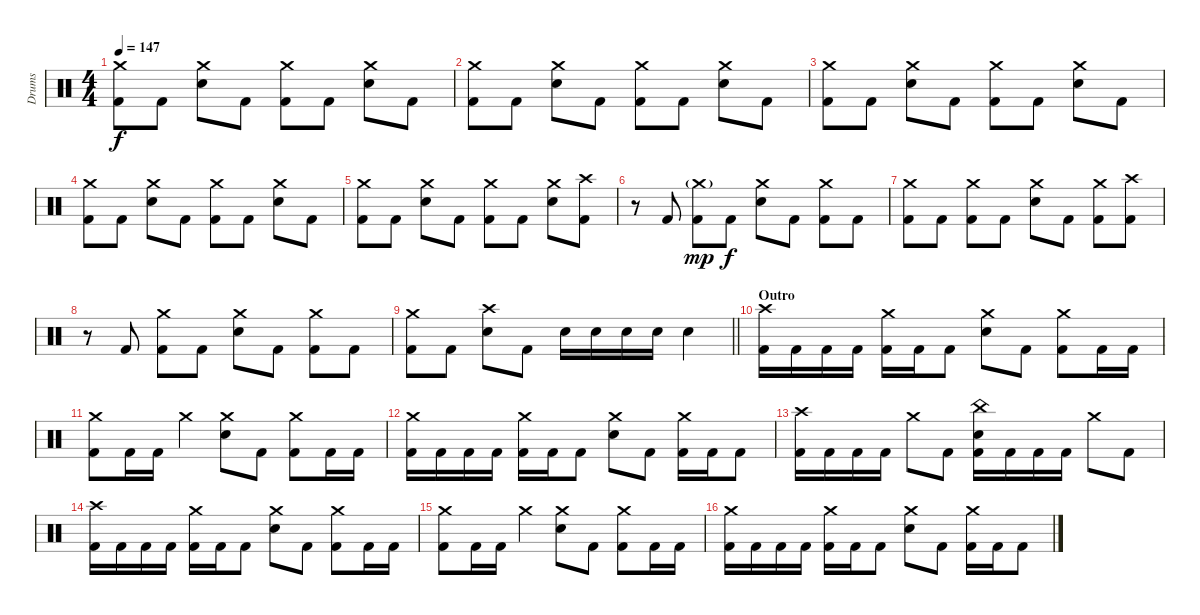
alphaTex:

\track ("Drums" "Drums") {instrument percussion}
\staff {score}
\articulation defaults
\ts (4 4)
\tempo 147
\clef neutral
\ks c
("Crash medium (hit)" "Kick (hit) 2").8{dy f} "Kick (hit) 2".8 ("Crash medium (hit)" "Snare (hit) 2").8 "Kick (hit) 2".8 ("Crash medium (hit)" "Kick (hit) 2").8 "Kick (hit) 2".8 ("Crash medium (hit)" "Snare (hit) 2").8 "Kick (hit) 2".8 |
("Crash medium (hit)" "Kick (hit) 2").8 "Kick (hit) 2".8 ("Crash medium (hit)" "Snare (hit) 2").8 "Kick (hit) 2".8 ("Crash medium (hit)" "Kick (hit) 2").8 "Kick (hit) 2".8 ("Crash medium (hit)" "Snare (hit) 2").8 "Kick (hit) 2".8 |
("Crash medium (hit)" "Kick (hit) 2").8 "Kick (hit) 2".8 ("Crash medium (hit)" "Snare (hit) 2").8 "Kick (hit) 2".8 ("Crash medium (hit)" "Kick (hit) 2").8 "Kick (hit) 2".8 ("Crash medium (hit)" "Snare (hit) 2").8 "Kick (hit) 2".8 |
("Crash medium (hit)" "Kick (hit) 2").8 "Kick (hit) 2".8 ("Crash medium (hit)" "Snare (hit) 2").8 "Kick (hit) 2".8 ("Crash medium (hit)" "Kick (hit) 2").8 "Kick (hit) 2".8 ("Crash medium (hit)" "Snare (hit) 2").8 "Kick (hit) 2".8 |
("Crash medium (hit)" "Kick (hit) 2").8 "Kick (hit) 2".8 ("Crash medium (hit)" "Snare (hit) 2").8 "Kick (hit) 2".8 ("Crash medium (hit)" "Kick (hit) 2").8 "Kick (hit) 2".8 ("Crash medium (hit)" "Snare (hit) 2").8 ("Crash high (hit)" "Kick (hit) 2").8 |
r.8 "Kick (hit) 2".8 ("Crash medium (hit)"{g} "Kick (hit) 2").8{dy mp} "Kick (hit) 2".8{dy f} ("Crash medium (hit)" "Snare (hit) 2").8 "Kick (hit) 2".8 ("Crash medium (hit)" "Kick (hit) 2").8 "Kick (hit) 2".8 |
("Crash medium (hit)" "Kick (hit) 2").8 "Kick (hit) 2".8 ("Crash medium (hit)" "Kick (hit) 2").8 "Kick (hit) 2".8 ("Crash medium (hit)" "Snare (hit) 2").8 "Kick (hit) 2".8 ("Crash medium (hit)" "Kick (hit) 2").8 ("Crash high (hit)" "Kick (hit) 2").8 |
r.8 "Kick (hit) 2".8 ("Crash medium (hit)" "Kick (hit) 2").8 "Kick (hit) 2".8 ("Crash medium (hit)" "Snare (hit) 2").8 "Kick (hit) 2".8 ("Crash medium (hit)" "Kick (hit) 2").8 "Kick (hit) 2".8 |
\barLineRight lightlight
("Crash medium (hit)" "Kick (hit) 2").8 "Kick (hit) 2".8 ("Crash high (hit)" "Snare (hit) 2").8 "Kick (hit) 2".8 "Snare (hit) 2".16 "Snare (hit) 2".16 "Snare (hit) 2".16 "Snare (hit) 2".16 "Snare (hit) 2".4 |
\section ("" "Outro")
("Crash high (hit)" "Kick (hit) 2").16 "Kick (hit) 2".16 "Kick (hit) 2".16 "Kick (hit) 2".16 ("Crash medium (hit)" "Kick (hit) 2").16 "Kick (hit) 2".16 "Kick (hit) 2".8 ("Crash medium (hit)" "Snare (hit) 2").8 "Kick (hit) 2".8 ("Crash medium (hit)" "Kick (hit) 2").8 "Kick (hit) 2".16 "Kick (hit) 2".16 |
("Crash medium (hit)" "Kick (hit) 2").8 "Kick (hit) 2".16 "Kick (hit) 2".16 "Crash medium (hit)".4 ("Crash medium (hit)" "Snare (hit) 2").8 "Kick (hit) 2".8 ("Crash medium (hit)" "Kick (hit) 2").8 "Kick (hit) 2".16 "Kick (hit) 2".16 |
("Crash medium (hit)" "Kick (hit) 2").16 "Kick (hit) 2".16 "Kick (hit) 2".16 "Kick (hit) 2".16 ("Crash medium (hit)" "Kick (hit) 2").16 "Kick (hit) 2".16 "Kick (hit) 2".8 ("Crash medium (hit)" "Snare (hit) 2").8 "Kick (hit) 2".8 ("Crash medium (hit)" "Kick (hit) 2").16 "Kick (hit) 2".16 "Kick (hit) 2".8 |
("Crash high (hit)" "Kick (hit) 2").16 "Kick (hit) 2".16 "Kick (hit) 2".16 "Kick (hit) 2".16 "Crash medium (hit)".8 "Kick (hit) 2".8 ("China (hit)" "Snare (hit) 2" "Kick (hit) 2").16 "Kick (hit) 2".16 "Kick (hit) 2".16 "Kick (hit) 2".16 "Crash medium (hit)".8 "Kick (hit) 2".8 |
("Crash high (hit)" "Kick (hit) 2").16 "Kick (hit) 2".16 "Kick (hit) 2".16 "Kick (hit) 2".16 ("Crash medium (hit)" "Kick (hit) 2").16 "Kick (hit) 2".16 "Kick (hit) 2".8 ("Crash medium (hit)" "Snare (hit) 2").8 "Kick (hit) 2".8 ("Crash medium (hit)" "Kick (hit) 2").8 "Kick (hit) 2".16 "Kick (hit) 2".16 |
("Crash medium (hit)" "Kick (hit) 2").8 "Kick (hit) 2".16 "Kick (hit) 2".16 "Crash medium (hit)".4 ("Crash medium (hit)" "Snare (hit) 2").8 "Kick (hit) 2".8 ("Crash medium (hit)" "Kick (hit) 2").8 "Kick (hit) 2".16 "Kick (hit) 2".16 |
("Crash medium (hit)" "Kick (hit) 2").16 "Kick (hit) 2".16 "Kick (hit) 2".16 "Kick (hit) 2".16 ("Crash medium (hit)" "Kick (hit) 2").16 "Kick (hit) 2".16 "Kick (hit) 2".8 ("Crash medium (hit)" "Snare (hit) 2").8 "Kick (hit) 2".8 ("Crash medium (hit)" "Kick (hit) 2").16 "Kick (hit) 2".16 "Kick (hit) 2".8
